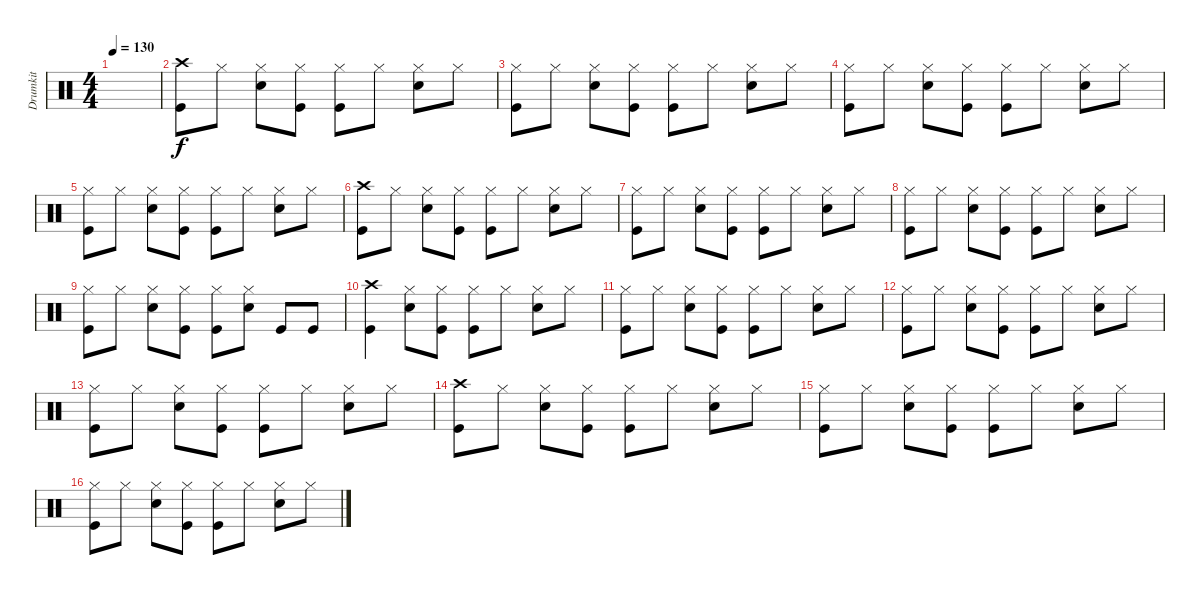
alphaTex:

\track ("Drumkit" "Drumkit") {instrument percussion}
\staff {score}
\articulation defaults
\ts (4 4)
\tempo 130
\clef neutral
\ks c
|
("Kick (hit)" "Crash high (hit)").8 "Hi-Hat (closed)".8 ("Snare (hit) 2" "Hi-Hat (closed)").8 ("Kick (hit)" "Hi-Hat (closed)").8 ("Kick (hit)" "Hi-Hat (closed)").8 "Hi-Hat (closed)".8 ("Snare (hit) 2" "Hi-Hat (closed)").8 "Hi-Hat (closed)".8 |
("Kick (hit)" "Hi-Hat (closed)").8 "Hi-Hat (closed)".8 ("Snare (hit) 2" "Hi-Hat (closed)").8 ("Kick (hit)" "Hi-Hat (closed)").8 ("Kick (hit)" "Hi-Hat (closed)").8 "Hi-Hat (closed)".8 ("Snare (hit) 2" "Hi-Hat (closed)").8 "Hi-Hat (closed)".8 |
("Kick (hit)" "Hi-Hat (closed)").8 "Hi-Hat (closed)".8 ("Snare (hit) 2" "Hi-Hat (closed)").8 ("Kick (hit)" "Hi-Hat (closed)").8 ("Kick (hit)" "Hi-Hat (closed)").8 "Hi-Hat (closed)".8 ("Snare (hit) 2" "Hi-Hat (closed)").8 "Hi-Hat (closed)".8 |
("Kick (hit)" "Hi-Hat (closed)").8 "Hi-Hat (closed)".8 ("Snare (hit) 2" "Hi-Hat (closed)").8 ("Kick (hit)" "Hi-Hat (closed)").8 ("Kick (hit)" "Hi-Hat (closed)").8 "Hi-Hat (closed)".8 ("Snare (hit) 2" "Hi-Hat (closed)").8 "Hi-Hat (closed)".8 |
("Kick (hit)" "Crash high (hit)").8 "Hi-Hat (closed)".8 ("Snare (hit) 2" "Hi-Hat (closed)").8 ("Kick (hit)" "Hi-Hat (closed)").8 ("Kick (hit)" "Hi-Hat (closed)").8 "Hi-Hat (closed)".8 ("Snare (hit) 2" "Hi-Hat (closed)").8 "Hi-Hat (closed)".8 |
("Kick (hit)" "Hi-Hat (closed)").8 "Hi-Hat (closed)".8 ("Snare (hit) 2" "Hi-Hat (closed)").8 ("Kick (hit)" "Hi-Hat (closed)").8 ("Kick (hit)" "Hi-Hat (closed)").8 "Hi-Hat (closed)".8 ("Snare (hit) 2" "Hi-Hat (closed)").8 "Hi-Hat (closed)".8 |
("Kick (hit)" "Hi-Hat (closed)").8 "Hi-Hat (closed)".8 ("Snare (hit) 2" "Hi-Hat (closed)").8 ("Kick (hit)" "Hi-Hat (closed)").8 ("Kick (hit)" "Hi-Hat (closed)").8 "Hi-Hat (closed)".8 ("Snare (hit) 2" "Hi-Hat (closed)").8 "Hi-Hat (closed)".8 |
("Kick (hit)" "Hi-Hat (closed)").8 "Hi-Hat (closed)".8 ("Snare (hit) 2" "Hi-Hat (closed)").8 ("Kick (hit)" "Hi-Hat (closed)").8 ("Kick (hit)" "Hi-Hat (closed)").8 ("Hi-Hat (closed)" "Snare (hit) 2").8 "Kick (hit)".8 "Kick (hit)".8 |
("Crash high (hit)" "Kick (hit)").4 ("Snare (hit) 2" "Hi-Hat (closed)").8 ("Kick (hit)" "Hi-Hat (closed)").8 ("Kick (hit)" "Hi-Hat (closed)").8 "Hi-Hat (closed)".8 ("Snare (hit) 2" "Hi-Hat (closed)").8 "Hi-Hat (closed)".8 |
("Kick (hit)" "Hi-Hat (closed)").8 "Hi-Hat (closed)".8 ("Snare (hit) 2" "Hi-Hat (closed)").8 ("Kick (hit)" "Hi-Hat (closed)").8 ("Kick (hit)" "Hi-Hat (closed)").8 "Hi-Hat (closed)".8 ("Snare (hit) 2" "Hi-Hat (closed)").8 "Hi-Hat (closed)".8 |
("Kick (hit)" "Hi-Hat (closed)").8 "Hi-Hat (closed)".8 ("Snare (hit) 2" "Hi-Hat (closed)").8 ("Kick (hit)" "Hi-Hat (closed)").8 ("Kick (hit)" "Hi-Hat (closed)").8 "Hi-Hat (closed)".8 ("Snare (hit) 2" "Hi-Hat (closed)").8 "Hi-Hat (closed)".8 |
("Kick (hit)" "Hi-Hat (closed)").8 "Hi-Hat (closed)".8 ("Snare (hit) 2" "Hi-Hat (closed)").8 ("Kick (hit)" "Hi-Hat (closed)").8 ("Kick (hit)" "Hi-Hat (closed)").8 "Hi-Hat (closed)".8 ("Snare (hit) 2" "Hi-Hat (closed)").8 "Hi-Hat (closed)".8 |
("Kick (hit)" "Crash high (hit)").8 "Hi-Hat (closed)".8 ("Snare (hit) 2" "Hi-Hat (closed)").8 ("Kick (hit)" "Hi-Hat (closed)").8 ("Kick (hit)" "Hi-Hat (closed)").8 "Hi-Hat (closed)".8 ("Snare (hit) 2" "Hi-Hat (closed)").8 "Hi-Hat (closed)".8 |
("Kick (hit)" "Hi-Hat (closed)").8 "Hi-Hat (closed)".8 ("Snare (hit) 2" "Hi-Hat (closed)").8 ("Kick (hit)" "Hi-Hat (closed)").8 ("Kick (hit)" "Hi-Hat (closed)").8 "Hi-Hat (closed)".8 ("Snare (hit) 2" "Hi-Hat (closed)").8 "Hi-Hat (closed)".8 |
("Kick (hit)" "Hi-Hat (closed)").8 "Hi-Hat (closed)".8 ("Snare (hit) 2" "Hi-Hat (closed)").8 ("Kick (hit)" "Hi-Hat (closed)").8 ("Kick (hit)" "Hi-Hat (closed)").8 "Hi-Hat (closed)".8 ("Snare (hit) 2" "Hi-Hat (closed)").8 "Hi-Hat (closed)".8
